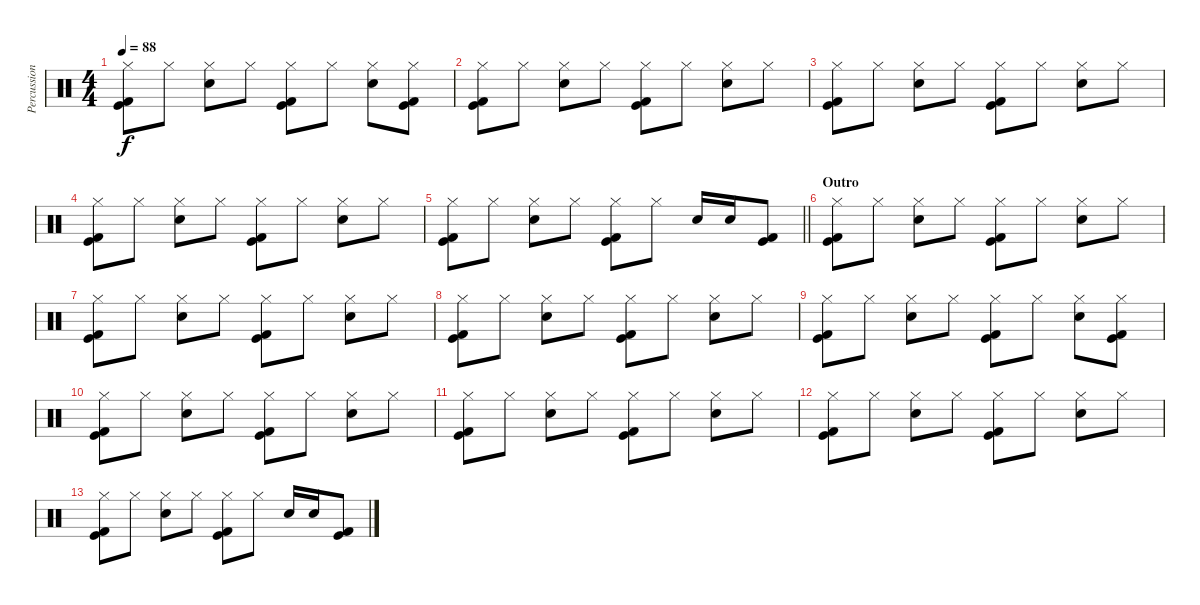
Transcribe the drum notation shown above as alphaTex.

\track ("Percussion" "Percussion") {instrument percussion}
\staff {score}
\articulation defaults
\ts (4 4)
\tempo 88
\clef neutral
\ks c
("Hi-Hat (closed)" "Kick (hit)" "Kick (hit) 2").8{dy f} "Hi-Hat (closed)".8 ("Hi-Hat (closed)" "Electric Snare (hit)").8 "Hi-Hat (closed)".8 ("Hi-Hat (closed)" "Kick (hit)" "Kick (hit) 2").8 "Hi-Hat (closed)".8 ("Hi-Hat (closed)" "Electric Snare (hit)").8 ("Hi-Hat (closed)" "Kick (hit)" "Kick (hit) 2").8 |
("Hi-Hat (closed)" "Kick (hit)" "Kick (hit) 2").8 "Hi-Hat (closed)".8 ("Hi-Hat (closed)" "Electric Snare (hit)").8 "Hi-Hat (closed)".8 ("Hi-Hat (closed)" "Kick (hit)" "Kick (hit) 2").8 "Hi-Hat (closed)".8 ("Hi-Hat (closed)" "Electric Snare (hit)").8 "Hi-Hat (closed)".8 |
("Hi-Hat (closed)" "Kick (hit)" "Kick (hit) 2").8 "Hi-Hat (closed)".8 ("Hi-Hat (closed)" "Electric Snare (hit)").8 "Hi-Hat (closed)".8 ("Hi-Hat (closed)" "Kick (hit)" "Kick (hit) 2").8 "Hi-Hat (closed)".8 ("Hi-Hat (closed)" "Electric Snare (hit)").8 "Hi-Hat (closed)".8 |
("Hi-Hat (closed)" "Kick (hit)" "Kick (hit) 2").8 "Hi-Hat (closed)".8 ("Hi-Hat (closed)" "Electric Snare (hit)").8 "Hi-Hat (closed)".8 ("Hi-Hat (closed)" "Kick (hit)" "Kick (hit) 2").8 "Hi-Hat (closed)".8 ("Hi-Hat (closed)" "Electric Snare (hit)").8 "Hi-Hat (closed)".8 |
\barLineRight lightlight
("Hi-Hat (closed)" "Kick (hit)" "Kick (hit) 2").8 "Hi-Hat (closed)".8 ("Hi-Hat (closed)" "Electric Snare (hit)").8 "Hi-Hat (closed)".8 ("Hi-Hat (closed)" "Kick (hit)" "Kick (hit) 2").8 "Hi-Hat (closed)".8 "Electric Snare (hit)".16 "Electric Snare (hit)".16 ("Kick (hit)" "Kick (hit) 2").8 |
\section ("" "Outro")
("Hi-Hat (closed)" "Kick (hit)" "Kick (hit) 2").8 "Hi-Hat (closed)".8 ("Hi-Hat (closed)" "Electric Snare (hit)").8 "Hi-Hat (closed)".8 ("Hi-Hat (closed)" "Kick (hit)" "Kick (hit) 2").8 "Hi-Hat (closed)".8 ("Hi-Hat (closed)" "Electric Snare (hit)").8 "Hi-Hat (closed)".8 |
("Hi-Hat (closed)" "Kick (hit)" "Kick (hit) 2").8 "Hi-Hat (closed)".8 ("Hi-Hat (closed)" "Electric Snare (hit)").8 "Hi-Hat (closed)".8 ("Hi-Hat (closed)" "Kick (hit)" "Kick (hit) 2").8 "Hi-Hat (closed)".8 ("Hi-Hat (closed)" "Electric Snare (hit)").8 "Hi-Hat (closed)".8 |
("Hi-Hat (closed)" "Kick (hit)" "Kick (hit) 2").8 "Hi-Hat (closed)".8 ("Hi-Hat (closed)" "Electric Snare (hit)").8 "Hi-Hat (closed)".8 ("Hi-Hat (closed)" "Kick (hit)" "Kick (hit) 2").8 "Hi-Hat (closed)".8 ("Hi-Hat (closed)" "Electric Snare (hit)").8 "Hi-Hat (closed)".8 |
("Hi-Hat (closed)" "Kick (hit)" "Kick (hit) 2").8{volume 0} "Hi-Hat (closed)".8 ("Hi-Hat (closed)" "Electric Snare (hit)").8 "Hi-Hat (closed)".8 ("Hi-Hat (closed)" "Kick (hit)" "Kick (hit) 2").8 "Hi-Hat (closed)".8 ("Hi-Hat (closed)" "Electric Snare (hit)").8 ("Hi-Hat (closed)" "Kick (hit)" "Kick (hit) 2").8 |
("Hi-Hat (closed)" "Kick (hit)" "Kick (hit) 2").8 "Hi-Hat (closed)".8 ("Hi-Hat (closed)" "Electric Snare (hit)").8 "Hi-Hat (closed)".8 ("Hi-Hat (closed)" "Kick (hit)" "Kick (hit) 2").8 "Hi-Hat (closed)".8 ("Hi-Hat (closed)" "Electric Snare (hit)").8 "Hi-Hat (closed)".8 |
("Hi-Hat (closed)" "Kick (hit)" "Kick (hit) 2").8 "Hi-Hat (closed)".8 ("Hi-Hat (closed)" "Electric Snare (hit)").8 "Hi-Hat (closed)".8 ("Hi-Hat (closed)" "Kick (hit)" "Kick (hit) 2").8 "Hi-Hat (closed)".8 ("Hi-Hat (closed)" "Electric Snare (hit)").8 "Hi-Hat (closed)".8 |
("Hi-Hat (closed)" "Kick (hit)" "Kick (hit) 2").8 "Hi-Hat (closed)".8 ("Hi-Hat (closed)" "Electric Snare (hit)").8 "Hi-Hat (closed)".8 ("Hi-Hat (closed)" "Kick (hit)" "Kick (hit) 2").8 "Hi-Hat (closed)".8 ("Hi-Hat (closed)" "Electric Snare (hit)").8 "Hi-Hat (closed)".8 |
("Hi-Hat (closed)" "Kick (hit)" "Kick (hit) 2").8 "Hi-Hat (closed)".8 ("Hi-Hat (closed)" "Electric Snare (hit)").8 "Hi-Hat (closed)".8 ("Hi-Hat (closed)" "Kick (hit)" "Kick (hit) 2").8 "Hi-Hat (closed)".8 "Electric Snare (hit)".16 "Electric Snare (hit)".16 ("Kick (hit)" "Kick (hit) 2").8
